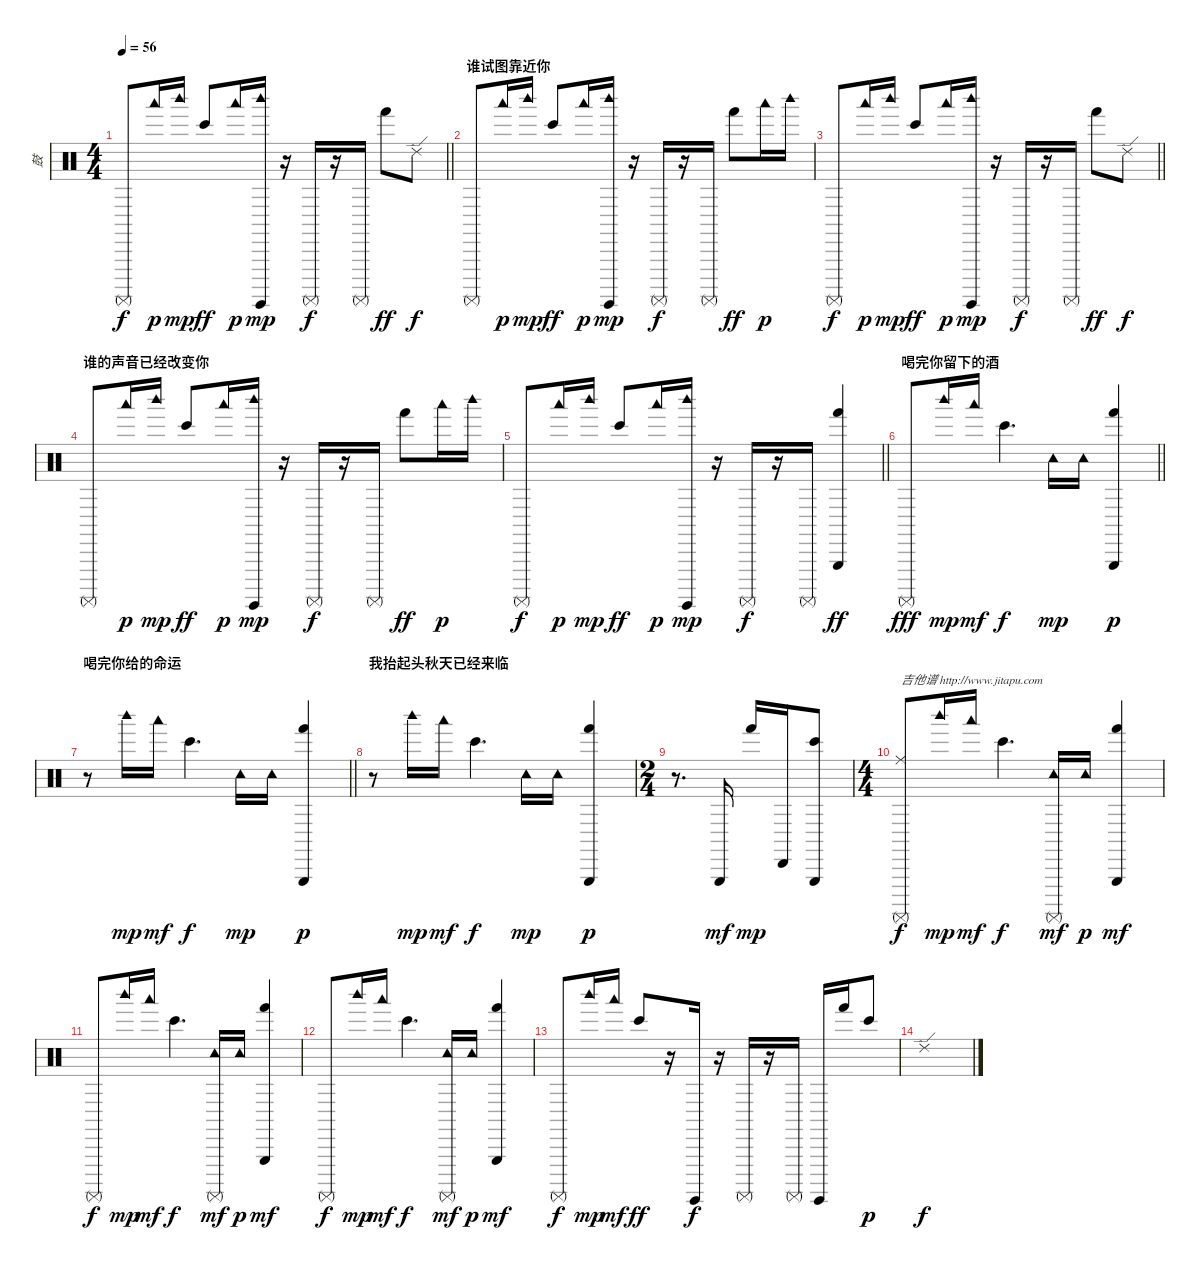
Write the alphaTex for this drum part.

\track ("鼓" "鼓") {instrument percussion}
\staff {score}
\articulation defaults
\ts (4 4)
\tempo 56
\clef neutral
\barLineRight lightlight
\ks c "Surdo (mute)".8{dy f} "Woodblock low (hit)".16{dy p} "Woodblock high (hit)".16{dy mp} "Bongo High (hit)".8{dy ff} "Woodblock low (hit)".16{dy p}
("Woodblock high (hit)" "Surdo (hit)").16{dy mp} r.16 "Surdo (mute)".16{dy f} r.16 "Surdo (mute)".16 "Hand (hit)".8{dy ff} "Ride (edge) 2".8{dy f} |
\section ("" "谁试图靠近你")
"Surdo (mute)".8 "Woodblock low (hit)".16{dy p} "Woodblock high (hit)".16{dy mp} "Bongo High (hit)".8{dy ff} "Woodblock low (hit)".16{dy p} ("Woodblock high (hit)" "Surdo (hit)").16{dy mp} r.16 "Surdo (mute)".16{dy f} r.16 "Surdo (mute)".16 "Hand (hit)".8{dy ff} "Woodblock low (hit)".16{dy p} "Woodblock high (hit)".16 |
\barLineRight lightlight "Surdo (mute)".8{dy f} "Woodblock low (hit)".16{dy p} "Woodblock high (hit)".16{dy mp} "Bongo High (hit)".8{dy ff} "Woodblock low (hit)".16{dy p}
("Woodblock high (hit)" "Surdo (hit)").16{dy mp} r.16 "Surdo (mute)".16{dy f} r.16 "Surdo (mute)".16 "Hand (hit)".8{dy ff} "Ride (edge) 2".8{dy f} |
\section ("" "谁的声音已经改变你")
"Surdo (mute)".8 "Woodblock low (hit)".16{dy p} "Woodblock high (hit)".16{dy mp} "Bongo High (hit)".8{dy ff} "Woodblock low (hit)".16{dy p} ("Woodblock high (hit)" "Surdo (hit)").16{dy mp} r.16 "Surdo (mute)".16{dy f} r.16 "Surdo (mute)".16 "Hand (hit)".8{dy ff} "Woodblock low (hit)".16{dy p} "Woodblock high (hit)".16 |
\barLineRight lightlight "Surdo (mute)".8{dy f} "Woodblock low (hit)".16{dy p} "Woodblock high (hit)".16{dy mp} "Bongo High (hit)".8{dy ff} "Woodblock low (hit)".16{dy p}
("Woodblock high (hit)" "Surdo (hit)").16{dy mp} r.16 "Surdo (mute)".16{dy f} r.16 "Surdo (mute)".16 ("Triangle (hit)" "Hand (hit)").4{dy ff} |
\section ("" "喝完你留下的酒")
\barLineRight lightlight "Surdo (mute)".8{dy fff volume 10} "Woodblock high (hit)".16{dy mp} "Woodblock low (hit)".16{dy mf} "Bongo High (hit)".4{d dy f} "Tambourine (hit)".16{dy mp} "Tambourine (hit)".16
("Triangle (hit)" "Hand (hit)").4{dy p} |
\section ("" "喝完你给的命运")
\barLineRight lightlight
r.8 "Woodblock high (hit)".16{dy mp} "Woodblock low (hit)".16{dy mf} "Bongo High (hit)".4{d dy f} "Tambourine (hit)".16{dy mp} "Tambourine (hit)".16 ("Triangle (hit)" "Hand (hit)").4{dy p} |
\section ("" "我抬起头秋天已经来临")
r.8 "Woodblock high (hit)".16{dy mp} "Woodblock low (hit)".16{dy mf} "Bongo High (hit)".4{d dy f} "Tambourine (hit)".16{dy mp} "Tambourine (hit)".16 ("Triangle (hit)" "Hand (hit)").4{dy p} |
\ts (2 4)
r.8{d} "Triangle (hit)".16{dy mf} "Hand (hit)".16{dy mp} "Cabasa (hit)".16 ("Triangle (hit)" "Bongo High (hit)").8 |
\ts (4 4)
("Ride (middle)" "Surdo (mute)").8{txt "吉他谱 http://www.jitapu.com" dy f volume 13} "Woodblock high (hit)".16{dy mp} "Woodblock low (hit)".16{dy mf} "Bongo High (hit)".4{d dy f} ("Tambourine (hit)" "Surdo (mute)").16{dy mf} "Tambourine (hit)".16{dy p} ("Triangle (hit)" "Hand (hit)").4{dy mf} |
"Surdo (mute)".8{dy f} "Woodblock high (hit)".16{dy mp} "Woodblock low (hit)".16{dy mf} "Bongo High (hit)".4{d dy f} ("Tambourine (hit)" "Surdo (mute)").16{dy mf} "Tambourine (hit)".16{dy p} ("Triangle (hit)" "Hand (hit)").4{dy mf} |
"Surdo (mute)".8{dy f} "Woodblock high (hit)".16{dy mp} "Woodblock low (hit)".16{dy mf} "Bongo High (hit)".4{d dy f} ("Tambourine (hit)" "Surdo (mute)").16{dy mf} "Tambourine (hit)".16{dy p} ("Triangle (hit)" "Hand (hit)").4{dy mf} |
"Surdo (mute)".8{dy f} "Woodblock high (hit)".16{dy mp} "Woodblock low (hit)".16{dy mf} "Bongo High (hit)".8{dy ff} r.16 "Surdo (hit)".16{dy f} r.16 "Surdo (mute)".16 r.16 "Surdo (mute)".16 "Surdo (hit)".16 "Hand (hit)".16 "Bongo High (hit)".8{dy p} |
"Ride (edge) 2".1{dy f}
